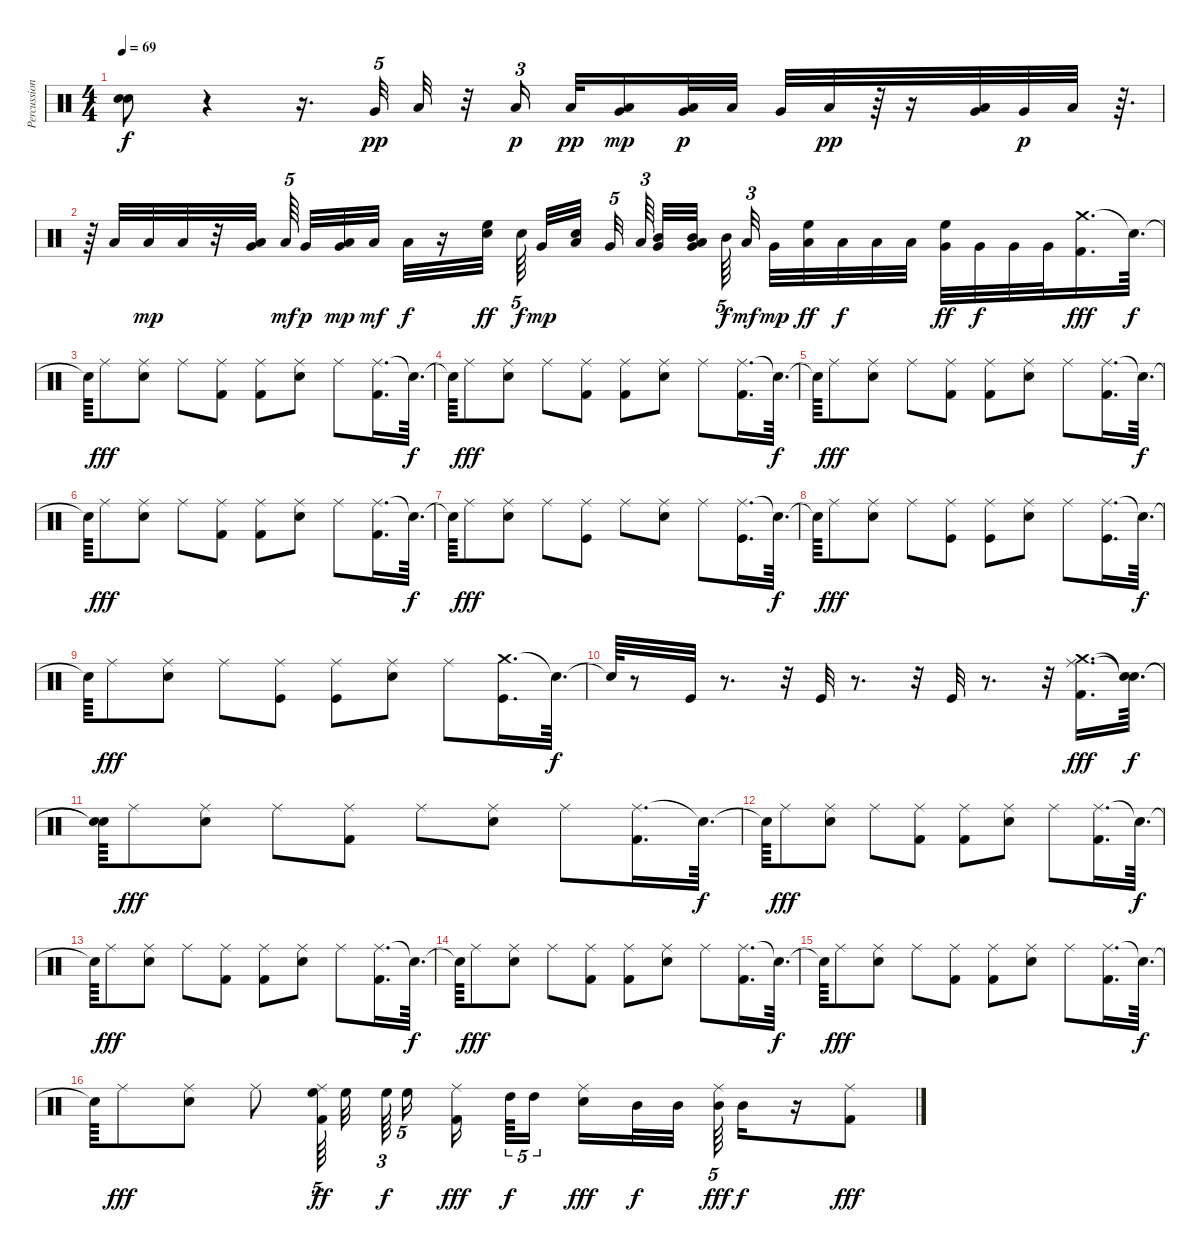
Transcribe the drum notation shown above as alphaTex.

\track ("Percussioni" "Percussion") {instrument percussion}
\staff {score}
\articulation defaults
\ts (4 4)
\tempo 69
\clef neutral
\ks c
("Snare (hit)"{t} "Snare (hit)"{t}).8{dy f} r.4 r.16{d} "Very Low Tom (hit)".32{tu (5 4) dy pp} "Low Tom (hit)".32 r.32 "Low Tom (hit)".16{tu (3 2) dy p beam splitsecondary} "Low Tom (hit)".32{dy pp} ("Very Low Tom (hit)" "Low Tom (hit)").16{dy mp} ("Low Tom (hit)" "Very Low Tom (hit)").32{dy p} "Low Tom (hit)".32 "Very Low Tom (hit)".32 "Low Tom (hit)".32{dy pp} r.64 r.16 ("Very Low Tom (hit)" "Low Tom (hit)").32 "Very Low Tom (hit)".32{dy p} "Low Tom (hit)".32 r.64{d} |
r.64 "Low Tom (hit)".32 "Low Tom (hit)".32{dy mp} "Low Tom (hit)".32 r.32 ("Low Tom (hit)" "Very Low Tom (hit)").32{beam splitsecondary} "Low Tom (hit)".64{tu (5 4) dy mf beam splitsecondary} "Very Low Tom (hit)".32{dy p} ("Low Tom (hit)" "Very Low Tom (hit)").32{dy mp} "Low Tom (hit)".32{dy mf} "Low Tom (hit)".32{dy f} r.16 ("Snare (hit) 2" "High Floor Tom (hit)").32{dy ff beam splitsecondary} "Snare (hit) 2".64{tu (5 4) dy f beam splitsecondary} "Very Low Tom (hit)".32{dy mp} ("Snare (hit) 2" "Low Tom (hit)").32{beam splitsecondary} "Very Low Tom (hit)".32{tu (5 4)} "Low Tom (hit)".64{tu (3 2) beam splitsecondary} ("Mid Tom (hit)" "Very Low Tom (hit)").32 ("Low Tom (hit)" "Mid Tom (hit)" "Very Low Tom (hit)").32{beam splitsecondary} "Mid Tom (hit)".64{tu (5 4) dy f} "Low Tom (hit)".32{tu (3 2) dy mf beam splitsecondary} "Very Low Tom (hit)".32{dy mp} ("Low Tom (hit)" "High Floor Tom (hit)").32{dy ff} "Low Tom (hit)".32{dy f} "Low Tom (hit)".32 "Low Tom (hit)".32 ("Very Low Tom (hit)" "High Floor Tom (hit)").32{dy ff} "Very Low Tom (hit)".32{dy f} "Very Low Tom (hit)".32 "Very Low Tom (hit)".32 ("Crash medium (hit)" "Kick (hit) 2").16{d dy fff} "Snare (hit)"{t}.64{d dy f} |
"Snare (hit)"{t}.64 "Ride (middle)".8{dy fff} ("Ride (middle)" "Snare (hit) 2").8 "Ride (middle)".8 ("Ride (middle)" "Kick (hit) 2").8 ("Ride (middle)" "Kick (hit) 2").8 ("Ride (middle)" "Snare (hit) 2").8 "Ride (middle)".8 ("Ride (middle)" "Kick (hit) 2").16{d} "Snare (hit)"{t}.64{d dy f} |
"Snare (hit)"{t}.64 "Ride (middle)".8{dy fff} ("Ride (middle)" "Snare (hit) 2").8 "Ride (middle)".8 ("Ride (middle)" "Kick (hit) 2").8 ("Ride (middle)" "Kick (hit) 2").8 ("Ride (middle)" "Snare (hit) 2").8 "Ride (middle)".8 ("Ride (middle)" "Kick (hit) 2").16{d} "Snare (hit)"{t}.64{d dy f} |
"Snare (hit)"{t}.64 "Ride (middle)".8{dy fff} ("Ride (middle)" "Snare (hit) 2").8 "Ride (middle)".8 ("Ride (middle)" "Kick (hit) 2").8 ("Ride (middle)" "Kick (hit) 2").8 ("Ride (middle)" "Snare (hit) 2").8 "Ride (middle)".8 ("Ride (middle)" "Kick (hit) 2").16{d} "Snare (hit)"{t}.64{d dy f} |
"Snare (hit)"{t}.64 "Ride (middle)".8{dy fff} ("Ride (middle)" "Snare (hit) 2").8 "Ride (middle)".8 ("Ride (middle)" "Kick (hit) 2").8 ("Ride (middle)" "Kick (hit) 2").8 ("Ride (middle)" "Snare (hit) 2").8 "Ride (middle)".8 ("Ride (middle)" "Kick (hit) 2").16{d} "Snare (hit)"{t}.64{d dy f} |
"Snare (hit)"{t}.64 "Ride (middle)".8{dy fff} ("Ride (middle)" "Snare (hit) 2").8 "Ride (middle)".8 ("Ride (middle)" "Kick (hit)").8 "Ride (middle)".8 ("Ride (middle)" "Snare (hit) 2").8 "Ride (middle)".8 ("Ride (middle)" "Kick (hit)").16{d} "Snare (hit)"{t}.64{d dy f} |
"Snare (hit)"{t}.64 "Ride (middle)".8{dy fff} ("Ride (middle)" "Snare (hit) 2").8 "Ride (middle)".8 ("Ride (middle)" "Kick (hit)").8 ("Ride (middle)" "Kick (hit)").8 ("Ride (middle)" "Snare (hit) 2").8 "Ride (middle)".8 ("Ride (middle)" "Kick (hit)").16{d} "Snare (hit)"{t}.64{d dy f} |
"Snare (hit)"{t}.64 "Ride (middle)".8{dy fff} ("Ride (middle)" "Snare (hit) 2").8 "Ride (middle)".8 ("Ride (middle)" "Kick (hit)").8 ("Ride (middle)" "Kick (hit)").8 ("Ride (middle)" "Snare (hit) 2").8 "Ride (middle)".8 ("Crash medium (hit)" "Kick (hit)").16{d} "Snare (hit)"{t}.64{d dy f} |
"Snare (hit)"{t}.64 r.8 "Kick (hit)".32 r.8{d} r.32 "Kick (hit)".32 r.8{d} r.32 "Kick (hit)".32 r.8{d} r.32 ("Crash medium (hit)" "Ride (middle)" "Kick (hit) 2").16{d dy fff} ("Snare (hit)"{t} "Snare (hit)"{t}).64{d dy f} |
("Snare (hit)"{t} "Snare (hit)"{t}).64 "Ride (middle)".8{dy fff} ("Ride (middle)" "Snare (hit) 2").8 "Ride (middle)".8 ("Ride (middle)" "Kick (hit) 2").8 "Ride (middle)".8 ("Ride (middle)" "Snare (hit) 2").8 "Ride (middle)".8 ("Ride (middle)" "Kick (hit) 2").16{d} "Snare (hit)"{t}.64{d dy f} |
"Snare (hit)"{t}.64 "Ride (middle)".8{dy fff} ("Ride (middle)" "Snare (hit) 2").8 "Ride (middle)".8 ("Ride (middle)" "Kick (hit) 2").8 ("Ride (middle)" "Kick (hit) 2").8 ("Ride (middle)" "Snare (hit) 2").8 "Ride (middle)".8 ("Ride (middle)" "Kick (hit) 2").16{d} "Snare (hit)"{t}.64{d dy f} |
"Snare (hit)"{t}.64 "Ride (middle)".8{dy fff} ("Ride (middle)" "Snare (hit) 2").8 "Ride (middle)".8 ("Ride (middle)" "Kick (hit) 2").8 ("Ride (middle)" "Kick (hit) 2").8 ("Ride (middle)" "Snare (hit) 2").8 "Ride (middle)".8 ("Ride (middle)" "Kick (hit) 2").16{d} "Snare (hit)"{t}.64{d dy f} |
"Snare (hit)"{t}.64 "Ride (middle)".8{dy fff} ("Ride (middle)" "Snare (hit) 2").8 "Ride (middle)".8 ("Ride (middle)" "Kick (hit) 2").8 ("Ride (middle)" "Kick (hit) 2").8 ("Ride (middle)" "Snare (hit) 2").8 "Ride (middle)".8 ("Ride (middle)" "Kick (hit) 2").16{d} "Snare (hit)"{t}.64{d dy f} |
"Snare (hit)"{t}.64 "Ride (middle)".8{dy fff} ("Ride (middle)" "Snare (hit) 2").8 "Ride (middle)".8 ("Ride (middle)" "Kick (hit) 2").8 ("Ride (middle)" "Kick (hit) 2").8 ("Ride (middle)" "Snare (hit) 2").8 "Ride (middle)".8 ("Ride (middle)" "Kick (hit) 2").16{d} "Snare (hit)"{t}.64{d dy f} |
"Snare (hit)"{t}.64 "Ride (middle)".8{dy fff} ("Ride (middle)" "Snare (hit) 2").8 "Ride (middle)".8 ("Ride (middle)" "Kick (hit) 2" "High Floor Tom (hit)").64{tu (5 4) dy ff beam splitsecondary} "High Floor Tom (hit)".32{beam splitsecondary} "High Floor Tom (hit)".64{tu (3 2) dy f} "High Floor Tom (hit)".16{tu (5 4) beam splitsecondary} ("Ride (middle)" "Kick (hit) 2").16{dy fff} "High Tom (hit)".64{tu (5 4) dy f} "High Tom (hit)".16{tu (5 4) beam splitsecondary} ("Ride (middle)" "Snare (hit) 2").16{dy fff} "Mid Tom (hit)".32{dy f} "Mid Tom (hit)".32{beam splitsecondary} ("Mid Tom (hit)" "Ride (middle)").64{tu (5 4) dy fff} "Mid Tom (hit)".16{dy f} r.16 ("Ride (middle)" "Kick (hit) 2").8{dy fff}
